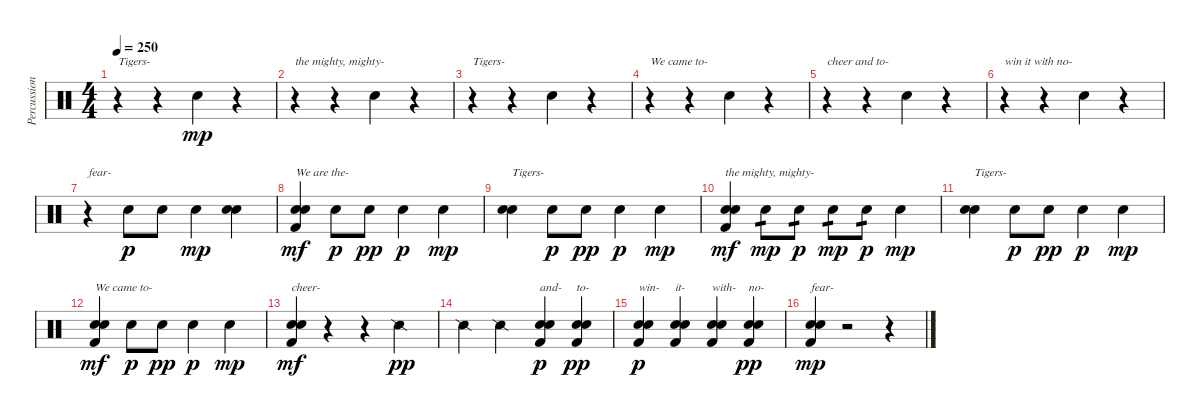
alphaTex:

\track ("Percussion" "Percussion") {instrument percussion}
\staff {score}
\articulation defaults
\ts (4 4)
\tempo 250
\clef neutral
\ks c
r.4{txt "Tigers-" dy mp} r.4 "Snare (hit) 2".4 r.4 |
r.4{txt "the mighty, mighty-"} r.4 "Snare (hit) 2".4 r.4 |
r.4{txt "Tigers-"} r.4 "Snare (hit) 2".4 r.4 |
r.4{txt "We came to-"} r.4 "Snare (hit) 2".4 r.4 |
r.4{txt "cheer and to-"} r.4 "Snare (hit) 2".4 r.4 |
r.4{txt "win it with no-"} r.4 "Snare (hit) 2".4 r.4 |
r.4{txt "fear-"} "Snare (hit) 2".8{dy p} "Snare (hit) 2".8 "Snare (hit) 2".4{dy mp} ("Snare (hit) 2" "Snare (hit) 2").4 |
("Snare (hit) 2" "Snare (hit) 2" "Kick (hit) 2").4{txt "We are the-" dy mf} "Snare (hit) 2".8{dy p} "Snare (hit) 2".8{dy pp} "Snare (hit) 2".4{dy p} "Snare (hit) 2".4{dy mp} |
("Snare (hit) 2" "Snare (hit) 2").4{txt "Tigers-"} "Snare (hit) 2".8{dy p} "Snare (hit) 2".8{dy pp} "Snare (hit) 2".4{dy p} "Snare (hit) 2".4{dy mp} |
("Snare (hit) 2" "Snare (hit) 2" "Kick (hit) 2").4{txt "the mighty, mighty-" dy mf} "Snare (hit) 2".8{tp 1 dy mp} "Snare (hit) 2".8{tp 1 dy p} "Snare (hit) 2".8{tp 1 dy mp} "Snare (hit) 2".8{tp 1 dy p} "Snare (hit) 2".4{dy mp} |
("Snare (hit) 2" "Snare (hit) 2").4{txt "Tigers-"} "Snare (hit) 2".8{dy p} "Snare (hit) 2".8{dy pp} "Snare (hit) 2".4{dy p} "Snare (hit) 2".4{dy mp} |
("Snare (hit) 2" "Snare (hit) 2" "Kick (hit) 2").4{txt "We came to-" dy mf} "Snare (hit) 2".8{dy p} "Snare (hit) 2".8{dy pp} "Snare (hit) 2".4{dy p} "Snare (hit) 2".4{dy mp} |
("Snare (hit) 2" "Snare (hit) 2" "Kick (hit) 2").4{txt "cheer-" dy mf} r.4 r.4 "Snare (side stick) 2".4{dy pp} |
"Snare (side stick) 2".4 "Snare (side stick) 2".4 ("Snare (hit) 2" "Snare (hit) 2" "Kick (hit) 2").4{txt "and-" dy p} ("Snare (hit) 2" "Snare (hit) 2" "Kick (hit) 2").4{txt "to-" dy pp} |
("Snare (hit) 2" "Snare (hit) 2" "Kick (hit) 2").4{txt "win-" dy p} ("Snare (hit) 2" "Snare (hit) 2" "Kick (hit) 2").4{txt "it-"} ("Snare (hit) 2" "Snare (hit) 2" "Kick (hit) 2").4{txt "with-"} ("Snare (hit) 2" "Snare (hit) 2" "Kick (hit) 2").4{txt "no-" dy pp} |
("Snare (hit) 2" "Snare (hit) 2" "Kick (hit) 2").4{txt "fear-" dy mp} r.2 r.4
